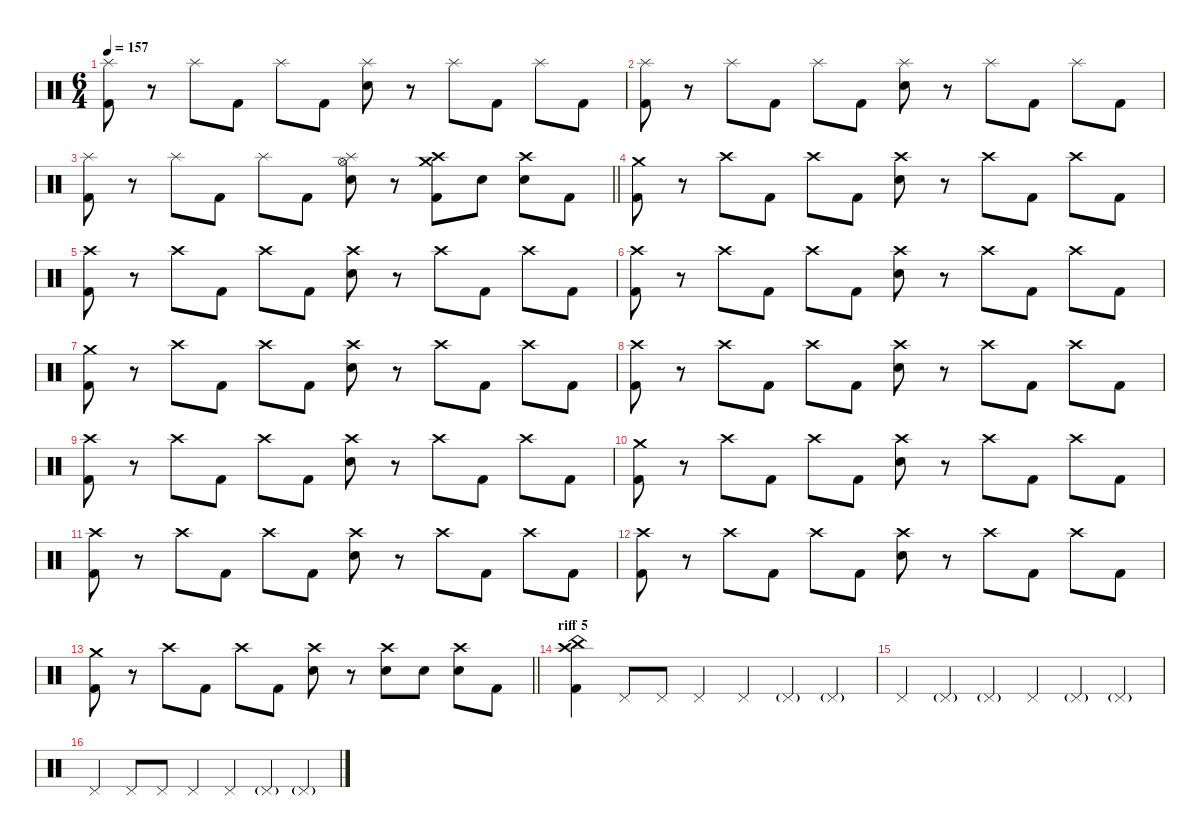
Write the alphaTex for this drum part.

\defaultSystemsLayout 4
\hideDynamics
\bracketExtendMode nobrackets
\singleTrackTrackNamePolicy hidden
\multiTrackTrackNamePolicy hidden
\firstSystemTrackNameMode fullname
\firstSystemTrackNameOrientation horizontal
\otherSystemsTrackNameOrientation horizontal
\track ("Drums" "drm.") {defaultSystemsLayout 4 instrument percussion}
\staff {score}
\articulation defaults
\ts (6 4)
\tempo 157
\clef neutral
\ks c
("Splash (hit)" "Kick (hit) 2").8{dy f beam Down} r.8{beam Down} "Splash (hit)".8{beam Down} "Kick (hit) 2".8{beam Down} "Splash (hit)".8{beam Down} "Kick (hit) 2".8{beam Down} ("Splash (hit)" "Snare (hit) 2").8{beam Down} r.8{beam Down} "Splash (hit)".8{beam Down} "Kick (hit) 2".8{beam Down} "Splash (hit)".8{beam Down} "Kick (hit) 2".8{beam Down} |
("Splash (hit)" "Kick (hit) 2").8{beam Down} r.8{beam Down} "Splash (hit)".8{beam Down} "Kick (hit) 2".8{beam Down} "Splash (hit)".8{beam Down} "Kick (hit) 2".8{beam Down} ("Splash (hit)" "Snare (hit) 2").8{beam Down} r.8{beam Down} "Splash (hit)".8{beam Down} "Kick (hit) 2".8{beam Down} "Splash (hit)".8{beam Down} "Kick (hit) 2".8{beam Down} |
\barLineRight lightlight
("Splash (hit)" "Kick (hit) 2").8{beam Down} r.8{beam Down} "Splash (hit)".8{beam Down} "Kick (hit) 2".8{beam Down} "Splash (hit)".8{beam Down} "Kick (hit) 2".8{beam Down} ("Hi-Hat (open)" "Splash (hit)" "Snare (hit) 2").8{beam Down} r.8{beam Down} ("Crash high (hit)" "Crash medium (hit)" "Kick (hit) 2").8{beam Down} "Snare (hit) 2".8{beam Down} ("Crash high (hit)" "Snare (hit) 2").8{beam Down} "Kick (hit) 2".8{beam Down} |
("Crash medium (hit)" "Kick (hit) 2").8{beam Down} r.8{beam Down} "Crash high (hit)".8{beam Down} "Kick (hit) 2".8{beam Down} "Crash high (hit)".8{beam Down} "Kick (hit) 2".8{beam Down} ("Crash high (hit)" "Snare (hit) 2").8{beam Down} r.8{beam Down} "Crash high (hit)".8{beam Down} "Kick (hit) 2".8{beam Down} "Crash high (hit)".8{beam Down} "Kick (hit) 2".8{beam Down} |
("Crash high (hit)" "Kick (hit) 2").8{beam Down} r.8{beam Down} "Crash high (hit)".8{beam Down} "Kick (hit) 2".8{beam Down} "Crash high (hit)".8{beam Down} "Kick (hit) 2".8{beam Down} ("Crash high (hit)" "Snare (hit) 2").8{beam Down} r.8{beam Down} "Crash high (hit)".8{beam Down} "Kick (hit) 2".8{beam Down} "Crash high (hit)".8{beam Down} "Kick (hit) 2".8{beam Down} |
("Crash high (hit)" "Kick (hit) 2").8{beam Down} r.8{beam Down} "Crash high (hit)".8{beam Down} "Kick (hit) 2".8{beam Down} "Crash high (hit)".8{beam Down} "Kick (hit) 2".8{beam Down} ("Crash high (hit)" "Snare (hit) 2").8{beam Down} r.8{beam Down} "Crash high (hit)".8{beam Down} "Kick (hit) 2".8{beam Down} "Crash high (hit)".8{beam Down} "Kick (hit) 2".8{beam Down} |
("Crash medium (hit)" "Kick (hit) 2").8{beam Down} r.8{beam Down} "Crash high (hit)".8{beam Down} "Kick (hit) 2".8{beam Down} "Crash high (hit)".8{beam Down} "Kick (hit) 2".8{beam Down} ("Crash high (hit)" "Snare (hit) 2").8{beam Down} r.8{beam Down} "Crash high (hit)".8{beam Down} "Kick (hit) 2".8{beam Down} "Crash high (hit)".8{beam Down} "Kick (hit) 2".8{beam Down} |
("Crash high (hit)" "Kick (hit) 2").8{beam Down} r.8{beam Down} "Crash high (hit)".8{beam Down} "Kick (hit) 2".8{beam Down} "Crash high (hit)".8{beam Down} "Kick (hit) 2".8{beam Down} ("Crash high (hit)" "Snare (hit) 2").8{beam Down} r.8{beam Down} "Crash high (hit)".8{beam Down} "Kick (hit) 2".8{beam Down} "Crash high (hit)".8{beam Down} "Kick (hit) 2".8{beam Down} |
("Crash high (hit)" "Kick (hit) 2").8{beam Down} r.8{beam Down} "Crash high (hit)".8{beam Down} "Kick (hit) 2".8{beam Down} "Crash high (hit)".8{beam Down} "Kick (hit) 2".8{beam Down} ("Crash high (hit)" "Snare (hit) 2").8{beam Down} r.8{beam Down} "Crash high (hit)".8{beam Down} "Kick (hit) 2".8{beam Down} "Crash high (hit)".8{beam Down} "Kick (hit) 2".8{beam Down} |
("Crash medium (hit)" "Kick (hit) 2").8{beam Down} r.8{beam Down} "Crash high (hit)".8{beam Down} "Kick (hit) 2".8{beam Down} "Crash high (hit)".8{beam Down} "Kick (hit) 2".8{beam Down} ("Crash high (hit)" "Snare (hit) 2").8{beam Down} r.8{beam Down} "Crash high (hit)".8{beam Down} "Kick (hit) 2".8{beam Down} "Crash high (hit)".8{beam Down} "Kick (hit) 2".8{beam Down} |
("Crash high (hit)" "Kick (hit) 2").8{beam Down} r.8{beam Down} "Crash high (hit)".8{beam Down} "Kick (hit) 2".8{beam Down} "Crash high (hit)".8{beam Down} "Kick (hit) 2".8{beam Down} ("Crash high (hit)" "Snare (hit) 2").8{beam Down} r.8{beam Down} "Crash high (hit)".8{beam Down} "Kick (hit) 2".8{beam Down} "Crash high (hit)".8{beam Down} "Kick (hit) 2".8{beam Down} |
("Crash high (hit)" "Kick (hit) 2").8{beam Down} r.8{beam Down} "Crash high (hit)".8{beam Down} "Kick (hit) 2".8{beam Down} "Crash high (hit)".8{beam Down} "Kick (hit) 2".8{beam Down} ("Crash high (hit)" "Snare (hit) 2").8{beam Down} r.8{beam Down} "Crash high (hit)".8{beam Down} "Kick (hit) 2".8{beam Down} "Crash high (hit)".8{beam Down} "Kick (hit) 2".8{beam Down} |
\barLineRight lightlight
("Crash medium (hit)" "Kick (hit) 2").8{beam Down} r.8{beam Down} "Crash high (hit)".8{beam Down} "Kick (hit) 2".8{beam Down} "Crash high (hit)".8{beam Down} "Kick (hit) 2".8{beam Down} ("Crash high (hit)" "Snare (hit) 2").8{beam Down} r.8{beam Down} ("Crash high (hit)" "Snare (hit) 2").8{beam Down} "Snare (hit) 2".8{beam Down} ("Crash high (hit)" "Snare (hit) 2").8{beam Down} "Kick (hit) 2".8{beam Down} |
\section ("" "riff 5")
("China (hit)" "Crash high (hit)" "Kick (hit) 2").4{beam Down} "Pedal Hi-Hat (hit)".8{beam Up} "Pedal Hi-Hat (hit)".8{beam Up} "Pedal Hi-Hat (hit)".4{beam Up} "Pedal Hi-Hat (hit)".4{beam Up} "Pedal Hi-Hat (hit)"{g}.4{dy mf beam Up} "Pedal Hi-Hat (hit)"{g}.4{beam Up} |
"Pedal Hi-Hat (hit)".4{dy f beam Up} "Pedal Hi-Hat (hit)"{g}.4{dy mf beam Up} "Pedal Hi-Hat (hit)"{g}.4{beam Up} "Pedal Hi-Hat (hit)".4{dy f beam Up} "Pedal Hi-Hat (hit)"{g}.4{dy mf beam Up} "Pedal Hi-Hat (hit)"{g}.4{beam Up} |
"Pedal Hi-Hat (hit)".4{dy f beam Up} "Pedal Hi-Hat (hit)".8{beam Up} "Pedal Hi-Hat (hit)".8{beam Up} "Pedal Hi-Hat (hit)".4{beam Up} "Pedal Hi-Hat (hit)".4{beam Up} "Pedal Hi-Hat (hit)"{g}.4{dy mf beam Up} "Pedal Hi-Hat (hit)"{g}.4{beam Up}
